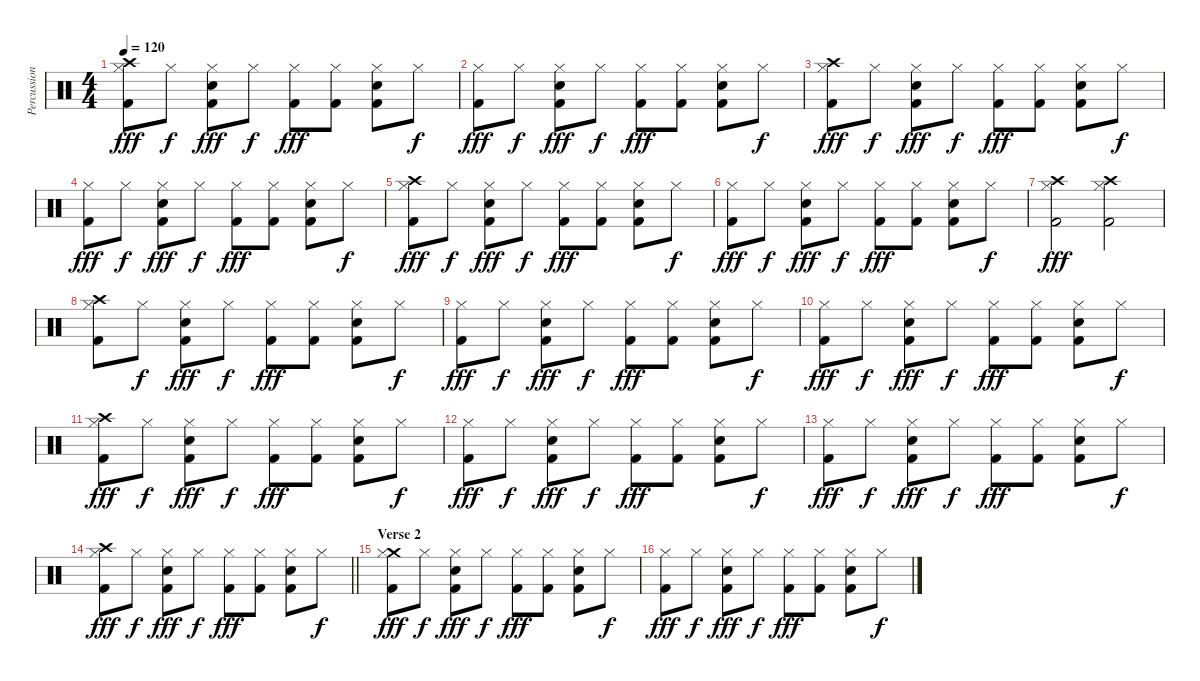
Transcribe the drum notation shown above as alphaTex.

\track ("Percussion: Steve Walchoz" "Percussion") {instrument percussion}
\staff {score}
\articulation defaults
\ts (4 4)
\tempo 120
\clef neutral
\ks c
("Crash high (hit)" "Hi-Hat (closed)" "Kick (hit) 2").8{dy fff} "Hi-Hat (closed)".8{dy f} ("Hi-Hat (closed)" "Snare (hit) 2" "Kick (hit) 2").8{dy fff} "Hi-Hat (closed)".8{dy f} ("Hi-Hat (closed)" "Kick (hit) 2").8{dy fff} ("Hi-Hat (closed)" "Kick (hit) 2").8 ("Hi-Hat (closed)" "Snare (hit) 2" "Kick (hit) 2").8 "Hi-Hat (closed)".8{dy f} |
("Hi-Hat (closed)" "Kick (hit) 2").8{dy fff} "Hi-Hat (closed)".8{dy f} ("Hi-Hat (closed)" "Snare (hit) 2" "Kick (hit) 2").8{dy fff} "Hi-Hat (closed)".8{dy f} ("Hi-Hat (closed)" "Kick (hit) 2").8{dy fff} ("Hi-Hat (closed)" "Kick (hit) 2").8 ("Hi-Hat (closed)" "Snare (hit) 2" "Kick (hit) 2").8 "Hi-Hat (closed)".8{dy f} |
("Crash high (hit)" "Hi-Hat (closed)" "Kick (hit) 2").8{dy fff} "Hi-Hat (closed)".8{dy f} ("Hi-Hat (closed)" "Snare (hit) 2" "Kick (hit) 2").8{dy fff} "Hi-Hat (closed)".8{dy f} ("Hi-Hat (closed)" "Kick (hit) 2").8{dy fff} ("Hi-Hat (closed)" "Kick (hit) 2").8 ("Hi-Hat (closed)" "Snare (hit) 2" "Kick (hit) 2").8 "Hi-Hat (closed)".8{dy f} |
("Hi-Hat (closed)" "Kick (hit) 2").8{dy fff} "Hi-Hat (closed)".8{dy f} ("Hi-Hat (closed)" "Snare (hit) 2" "Kick (hit) 2").8{dy fff} "Hi-Hat (closed)".8{dy f} ("Hi-Hat (closed)" "Kick (hit) 2").8{dy fff} ("Hi-Hat (closed)" "Kick (hit) 2").8 ("Hi-Hat (closed)" "Snare (hit) 2" "Kick (hit) 2").8 "Hi-Hat (closed)".8{dy f} |
("Crash high (hit)" "Hi-Hat (closed)" "Kick (hit) 2").8{dy fff} "Hi-Hat (closed)".8{dy f} ("Hi-Hat (closed)" "Snare (hit) 2" "Kick (hit) 2").8{dy fff} "Hi-Hat (closed)".8{dy f} ("Hi-Hat (closed)" "Kick (hit) 2").8{dy fff} ("Hi-Hat (closed)" "Kick (hit) 2").8 ("Hi-Hat (closed)" "Snare (hit) 2" "Kick (hit) 2").8 "Hi-Hat (closed)".8{dy f} |
("Hi-Hat (closed)" "Kick (hit) 2").8{dy fff} "Hi-Hat (closed)".8{dy f} ("Hi-Hat (closed)" "Snare (hit) 2" "Kick (hit) 2").8{dy fff} "Hi-Hat (closed)".8{dy f} ("Hi-Hat (closed)" "Kick (hit) 2").8{dy fff} ("Hi-Hat (closed)" "Kick (hit) 2").8 ("Hi-Hat (closed)" "Snare (hit) 2" "Kick (hit) 2").8 "Hi-Hat (closed)".8{dy f} |
("Crash high (hit)" "Hi-Hat (closed)" "Kick (hit) 2").2{dy fff} ("Crash high (hit)" "Hi-Hat (closed)" "Kick (hit) 2").2 |
("Crash high (hit)" "Hi-Hat (closed)" "Kick (hit) 2").8 "Hi-Hat (closed)".8{dy f} ("Hi-Hat (closed)" "Snare (hit) 2" "Kick (hit) 2").8{dy fff} "Hi-Hat (closed)".8{dy f} ("Hi-Hat (closed)" "Kick (hit) 2").8{dy fff} ("Hi-Hat (closed)" "Kick (hit) 2").8 ("Hi-Hat (closed)" "Snare (hit) 2" "Kick (hit) 2").8 "Hi-Hat (closed)".8{dy f} |
("Hi-Hat (closed)" "Kick (hit) 2").8{dy fff} "Hi-Hat (closed)".8{dy f} ("Hi-Hat (closed)" "Snare (hit) 2" "Kick (hit) 2").8{dy fff} "Hi-Hat (closed)".8{dy f} ("Hi-Hat (closed)" "Kick (hit) 2").8{dy fff} ("Hi-Hat (closed)" "Kick (hit) 2").8 ("Hi-Hat (closed)" "Snare (hit) 2" "Kick (hit) 2").8 "Hi-Hat (closed)".8{dy f} |
("Hi-Hat (closed)" "Kick (hit) 2").8{dy fff} "Hi-Hat (closed)".8{dy f} ("Hi-Hat (closed)" "Snare (hit) 2" "Kick (hit) 2").8{dy fff} "Hi-Hat (closed)".8{dy f} ("Hi-Hat (closed)" "Kick (hit) 2").8{dy fff} ("Hi-Hat (closed)" "Kick (hit) 2").8 ("Hi-Hat (closed)" "Snare (hit) 2" "Kick (hit) 2").8 "Hi-Hat (closed)".8{dy f} |
("Crash high (hit)" "Hi-Hat (closed)" "Kick (hit) 2").8{dy fff} "Hi-Hat (closed)".8{dy f} ("Hi-Hat (closed)" "Snare (hit) 2" "Kick (hit) 2").8{dy fff} "Hi-Hat (closed)".8{dy f} ("Hi-Hat (closed)" "Kick (hit) 2").8{dy fff} ("Hi-Hat (closed)" "Kick (hit) 2").8 ("Hi-Hat (closed)" "Snare (hit) 2" "Kick (hit) 2").8 "Hi-Hat (closed)".8{dy f} |
("Hi-Hat (closed)" "Kick (hit) 2").8{dy fff} "Hi-Hat (closed)".8{dy f} ("Hi-Hat (closed)" "Snare (hit) 2" "Kick (hit) 2").8{dy fff} "Hi-Hat (closed)".8{dy f} ("Hi-Hat (closed)" "Kick (hit) 2").8{dy fff} ("Hi-Hat (closed)" "Kick (hit) 2").8 ("Hi-Hat (closed)" "Snare (hit) 2" "Kick (hit) 2").8 "Hi-Hat (closed)".8{dy f} |
("Hi-Hat (closed)" "Kick (hit) 2").8{dy fff} "Hi-Hat (closed)".8{dy f} ("Hi-Hat (closed)" "Snare (hit) 2" "Kick (hit) 2").8{dy fff} "Hi-Hat (closed)".8{dy f} ("Hi-Hat (closed)" "Kick (hit) 2").8{dy fff} ("Hi-Hat (closed)" "Kick (hit) 2").8 ("Hi-Hat (closed)" "Snare (hit) 2" "Kick (hit) 2").8 "Hi-Hat (closed)".8{dy f} |
\barLineRight lightlight
("Crash high (hit)" "Hi-Hat (closed)" "Kick (hit) 2").8{dy fff} "Hi-Hat (closed)".8{dy f} ("Hi-Hat (closed)" "Snare (hit) 2" "Kick (hit) 2").8{dy fff} "Hi-Hat (closed)".8{dy f} ("Hi-Hat (closed)" "Kick (hit) 2").8{dy fff} ("Hi-Hat (closed)" "Kick (hit) 2").8 ("Hi-Hat (closed)" "Snare (hit) 2" "Kick (hit) 2").8 "Hi-Hat (closed)".8{dy f} |
\section ("" "Verse 2")
("Crash medium (hit)" "Hi-Hat (closed)" "Kick (hit) 2").8{dy fff} "Hi-Hat (closed)".8{dy f} ("Hi-Hat (closed)" "Snare (hit) 2" "Kick (hit) 2").8{dy fff} "Hi-Hat (closed)".8{dy f} ("Hi-Hat (closed)" "Kick (hit) 2").8{dy fff} ("Hi-Hat (closed)" "Kick (hit) 2").8 ("Hi-Hat (closed)" "Snare (hit) 2" "Kick (hit) 2").8 "Hi-Hat (closed)".8{dy f} |
("Hi-Hat (closed)" "Kick (hit) 2").8{dy fff} "Hi-Hat (closed)".8{dy f} ("Hi-Hat (closed)" "Snare (hit) 2" "Kick (hit) 2").8{dy fff} "Hi-Hat (closed)".8{dy f} ("Hi-Hat (closed)" "Kick (hit) 2").8{dy fff} ("Hi-Hat (closed)" "Kick (hit) 2").8 ("Hi-Hat (closed)" "Snare (hit) 2" "Kick (hit) 2").8 "Hi-Hat (closed)".8{dy f}
